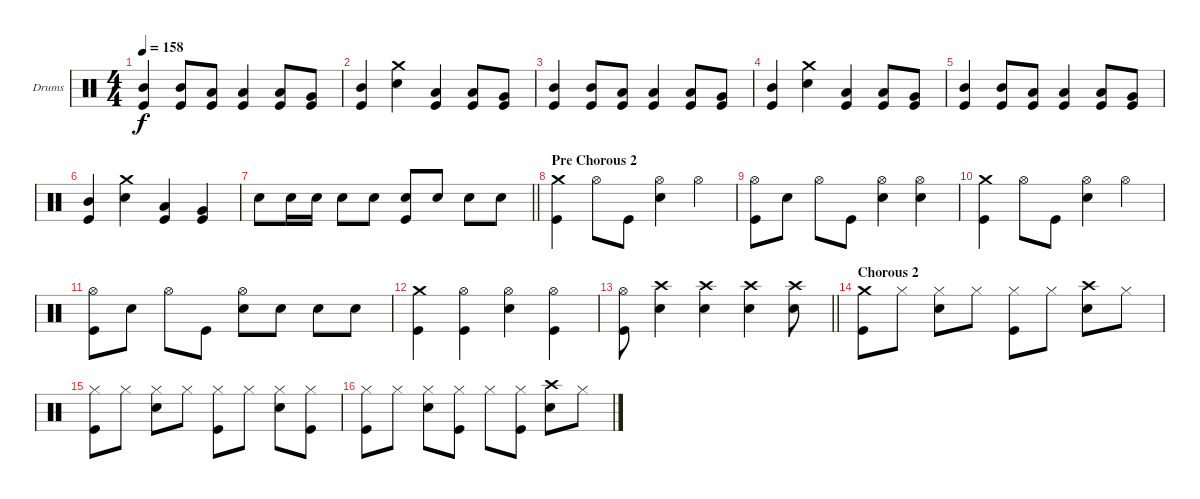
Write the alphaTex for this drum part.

\bracketExtendMode groupsimilarinstruments
\firstSystemTrackNameOrientation horizontal
\otherSystemsTrackNameOrientation horizontal
\track ("Drumkit" "Drums") {instrument percussion}
\staff {score}
\articulation defaults
\ts (4 4)
\tempo 158
\clef neutral
\ks c
("Kick (hit)" "Mid Tom (hit)").4{dy f} ("Kick (hit)" "Mid Tom (hit)").8 ("Kick (hit)" "Low Tom (hit)").8 ("Kick (hit)" "Low Tom (hit)").4 ("Kick (hit)" "Low Tom (hit)").8 ("Kick (hit)" "Very Low Tom (hit)").8 |
("Kick (hit)" "Mid Tom (hit)").4 ("Crash medium (hit)" "Snare (hit) 2").4 ("Kick (hit)" "Low Tom (hit)").4 ("Kick (hit)" "Low Tom (hit)").8 ("Kick (hit)" "Very Low Tom (hit)").8 |
("Kick (hit)" "Mid Tom (hit)").4 ("Kick (hit)" "Mid Tom (hit)").8 ("Kick (hit)" "Low Tom (hit)").8 ("Kick (hit)" "Low Tom (hit)").4 ("Kick (hit)" "Low Tom (hit)").8 ("Kick (hit)" "Very Low Tom (hit)").8 |
("Kick (hit)" "Mid Tom (hit)").4 ("Crash medium (hit)" "Snare (hit) 2").4 ("Kick (hit)" "Low Tom (hit)").4 ("Kick (hit)" "Low Tom (hit)").8 ("Kick (hit)" "Very Low Tom (hit)").8 |
("Kick (hit)" "Mid Tom (hit)").4 ("Kick (hit)" "Mid Tom (hit)").8 ("Kick (hit)" "Low Tom (hit)").8 ("Kick (hit)" "Low Tom (hit)").4 ("Kick (hit)" "Low Tom (hit)").8 ("Kick (hit)" "Very Low Tom (hit)").8 |
("Kick (hit)" "Mid Tom (hit)").4 ("Crash medium (hit)" "Snare (hit) 2").4 ("Kick (hit)" "Low Tom (hit)").4 ("Kick (hit)" "Very Low Tom (hit)").4 |
\barLineRight lightlight "Snare (hit) 2".8 "Snare (hit) 2".16 "Snare (hit) 2".16 "Snare (hit) 2".8 "Snare (hit) 2".8
("Snare (hit) 2" "Kick (hit)").8 "Snare (hit) 2".8 "Snare (hit) 2".8 "Snare (hit) 2".8 |
\section ("" "Pre Chorous 2")
("Crash medium (hit)" "Kick (hit)").4 "Hi-Hat (open)".8 "Kick (hit)".8 ("Hi-Hat (open)" "Snare (hit) 2").4 "Hi-Hat (open)".4 |
("Hi-Hat (open)" "Kick (hit)").8 "Snare (hit) 2".8 "Hi-Hat (open)".8 "Kick (hit)".8 ("Hi-Hat (open)" "Snare (hit) 2").4 ("Hi-Hat (open)" "Snare (hit) 2").4 |
("Crash medium (hit)" "Kick (hit)").4 "Hi-Hat (open)".8 "Kick (hit)".8 ("Hi-Hat (open)" "Snare (hit) 2").4 "Hi-Hat (open)".4 |
("Hi-Hat (open)" "Kick (hit)").8 "Snare (hit) 2".8 "Hi-Hat (open)".8 "Kick (hit)".8 ("Hi-Hat (open)" "Snare (hit) 2").8 "Snare (hit) 2".8 "Snare (hit) 2".8 "Snare (hit) 2".8 |
("Crash medium (hit)" "Kick (hit)").4 ("Hi-Hat (open)" "Kick (hit)").4 ("Hi-Hat (open)" "Snare (hit) 2").4 ("Hi-Hat (open)" "Kick (hit)").4 |
\barLineRight lightlight
("Hi-Hat (open)" "Kick (hit)").8 ("Crash high (hit)" "Snare (hit) 2").4 ("Crash high (hit)" "Snare (hit) 2").4 ("Crash high (hit)" "Snare (hit) 2").4 ("Crash high (hit)" "Snare (hit) 2").8 |
\section ("" "Chorous 2")
("Crash medium (hit)" "Kick (hit)").8 "Hi-Hat (closed)".8 ("Hi-Hat (closed)" "Snare (hit) 2").8 "Hi-Hat (closed)".8 ("Hi-Hat (closed)" "Kick (hit)").8 "Hi-Hat (closed)".8 ("Crash high (hit)" "Snare (hit) 2").8 "Hi-Hat (closed)".8 |
("Hi-Hat (closed)" "Kick (hit)").8 "Hi-Hat (closed)".8 ("Hi-Hat (closed)" "Snare (hit) 2").8 "Hi-Hat (closed)".8 ("Hi-Hat (closed)" "Kick (hit)").8 "Hi-Hat (closed)".8 ("Hi-Hat (closed)" "Snare (hit) 2").8 ("Hi-Hat (closed)" "Kick (hit)").8 |
("Hi-Hat (closed)" "Kick (hit)").8 "Hi-Hat (closed)".8 ("Hi-Hat (closed)" "Snare (hit) 2").8 ("Hi-Hat (closed)" "Kick (hit)").8 "Hi-Hat (closed)".8 ("Hi-Hat (closed)" "Kick (hit)").8 ("Crash high (hit)" "Snare (hit) 2").8 "Hi-Hat (closed)".8
